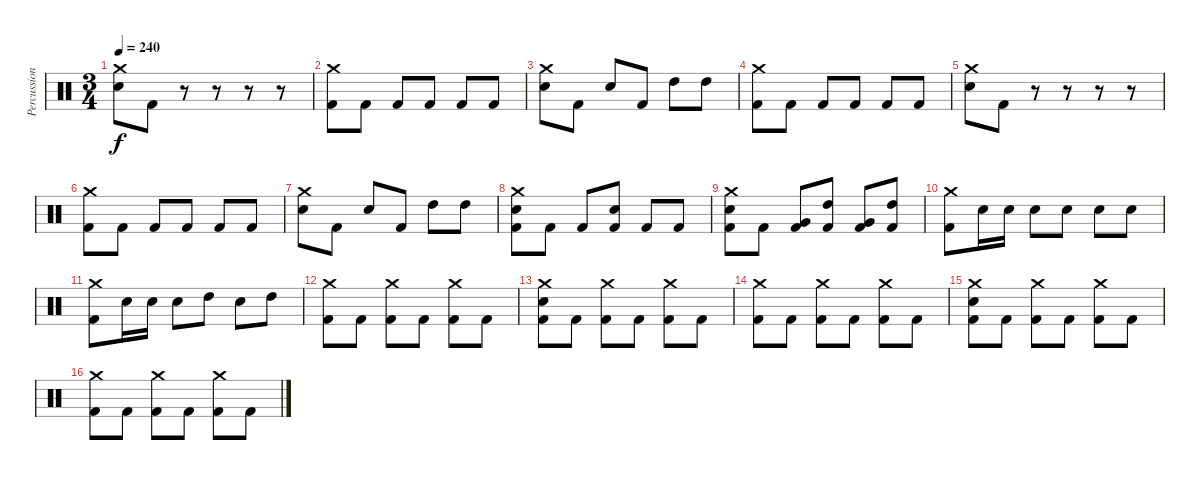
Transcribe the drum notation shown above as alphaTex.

\track ("Percussion" "Percussion") {instrument percussion}
\staff {score}
\articulation defaults
\ts (3 4)
\tempo 240
\clef neutral
\ks c
("Crash medium (hit)" "Electric Snare (hit)").8{dy f} "Kick (hit) 2".8 r.8 r.8 r.8 r.8 |
("Crash medium (hit)" "Kick (hit) 2").8 "Kick (hit) 2".8 "Kick (hit) 2".8 "Kick (hit) 2".8 "Kick (hit) 2".8 "Kick (hit) 2".8 |
("Crash medium (hit)" "Electric Snare (hit)").8 "Kick (hit) 2".8 "Electric Snare (hit)".8 "Kick (hit) 2".8 "High Tom (hit)".8 "High Tom (hit)".8 |
("Crash medium (hit)" "Kick (hit) 2").8 "Kick (hit) 2".8 "Kick (hit) 2".8 "Kick (hit) 2".8 "Kick (hit) 2".8 "Kick (hit) 2".8 |
("Crash medium (hit)" "Electric Snare (hit)").8 "Kick (hit) 2".8 r.8 r.8 r.8 r.8 |
("Crash medium (hit)" "Kick (hit) 2").8 "Kick (hit) 2".8 "Kick (hit) 2".8 "Kick (hit) 2".8 "Kick (hit) 2".8 "Kick (hit) 2".8 |
("Crash medium (hit)" "Electric Snare (hit)").8 "Kick (hit) 2".8 "Electric Snare (hit)".8 "Kick (hit) 2".8 "High Tom (hit)".8 "High Tom (hit)".8 |
("Crash medium (hit)" "Electric Snare (hit)" "Kick (hit) 2").8 "Kick (hit) 2".8 "Kick (hit) 2".8 ("Electric Snare (hit)" "Kick (hit) 2").8 "Kick (hit) 2".8 "Kick (hit) 2".8 |
("Crash medium (hit)" "Electric Snare (hit)" "Kick (hit) 2").8 "Kick (hit) 2".8 ("Very Low Tom (hit)" "Kick (hit) 2").8 ("High Tom (hit)" "Kick (hit) 2").8 ("Very Low Tom (hit)" "Kick (hit) 2").8 ("High Tom (hit)" "Kick (hit) 2").8 |
("Crash medium (hit)" "Kick (hit) 2").8 "Electric Snare (hit)".16 "Electric Snare (hit)".16 "Electric Snare (hit)".8 "Electric Snare (hit)".8 "Electric Snare (hit)".8 "Electric Snare (hit)".8 |
("Crash medium (hit)" "Kick (hit) 2").8 "Electric Snare (hit)".16 "Electric Snare (hit)".16 "Electric Snare (hit)".8 "High Tom (hit)".8 "Electric Snare (hit)".8 "High Tom (hit)".8 |
("Crash medium (hit)" "Kick (hit) 2").8 "Kick (hit) 2".8 ("Crash medium (hit)" "Kick (hit) 2").8 "Kick (hit) 2".8 ("Crash medium (hit)" "Kick (hit) 2").8 "Kick (hit) 2".8 |
("Crash medium (hit)" "Electric Snare (hit)" "Kick (hit) 2").8 "Kick (hit) 2".8 ("Crash medium (hit)" "Kick (hit) 2").8 "Kick (hit) 2".8 ("Crash medium (hit)" "Kick (hit) 2").8 "Kick (hit) 2".8 |
("Crash medium (hit)" "Kick (hit) 2").8 "Kick (hit) 2".8 ("Crash medium (hit)" "Kick (hit) 2").8 "Kick (hit) 2".8 ("Crash medium (hit)" "Kick (hit) 2").8 "Kick (hit) 2".8 |
("Crash medium (hit)" "Electric Snare (hit)" "Kick (hit) 2").8 "Kick (hit) 2".8 ("Crash medium (hit)" "Kick (hit) 2").8 "Kick (hit) 2".8 ("Crash medium (hit)" "Kick (hit) 2").8 "Kick (hit) 2".8 |
("Crash medium (hit)" "Kick (hit) 2").8 "Kick (hit) 2".8 ("Crash medium (hit)" "Kick (hit) 2").8 "Kick (hit) 2".8 ("Crash medium (hit)" "Kick (hit) 2").8 "Kick (hit) 2".8
